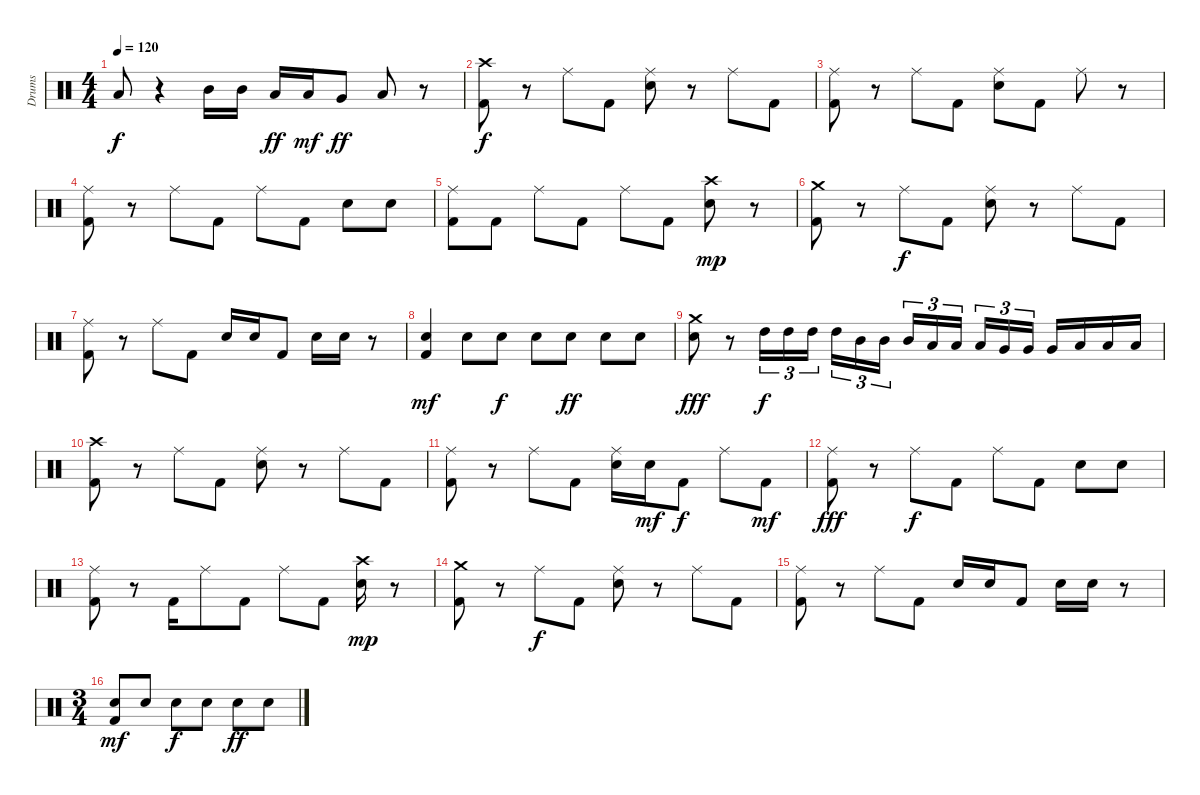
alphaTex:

\track ("Drums" "Drums") {instrument percussion}
\staff {score}
\articulation defaults
\ts (4 4)
\tempo 120
\clef neutral
\ks c "Low Floor Tom (hit)".8{dy f}
r.4 "Mid Tom (hit)".16 "Mid Tom (hit)".16 "Low Tom (hit)".16{dy ff} "Low Tom (hit)".16{dy mf} "Very Low Tom (hit)".8{dy ff} "Low Floor Tom (hit)".8 r.8 |
("Kick (hit) 2" "Crash high (hit)").8{dy f} r.8 "Ride (middle)".8 "Kick (hit) 2".8 ("Snare (hit) 2" "Ride (middle)").8 r.8 "Ride (middle)".8 "Kick (hit) 2".8 |
("Kick (hit) 2" "Ride (middle)").8 r.8 "Ride (middle)".8 "Kick (hit) 2".8 ("Snare (hit) 2" "Ride (middle)").8 "Kick (hit) 2".8 "Ride (middle)".8 r.8 |
("Kick (hit) 2" "Ride (middle)").8 r.8 "Ride (middle)".8 "Kick (hit) 2".8 "Ride (middle)".8 "Kick (hit) 2".8 "Snare (hit) 2".8 "Snare (hit) 2".8 |
("Kick (hit) 2" "Ride (middle)").8 "Kick (hit) 2".8 "Ride (middle)".8 "Kick (hit) 2".8 "Ride (middle)".8 "Kick (hit) 2".8 ("Snare (hit) 2" "Crash high (hit)").8{dy mp} r.8 |
("Kick (hit) 2" "Crash medium (hit)").8 r.8 "Ride (middle)".8{dy f} "Kick (hit) 2".8 ("Snare (hit) 2" "Ride (middle)").8 r.8 "Ride (middle)".8 "Kick (hit) 2".8 |
("Kick (hit) 2" "Ride (middle)").8 r.8 "Ride (middle)".8 "Kick (hit) 2".8 "Snare (hit) 2".16 "Snare (hit) 2".16 "Kick (hit) 2".8 "Snare (hit) 2".16 "Snare (hit) 2".16 r.8 |
("Kick (hit) 2" "Snare (hit) 2").4{dy mf} "Snare (hit) 2".8 "Snare (hit) 2".8{dy f} "Snare (hit) 2".8 "Snare (hit) 2".8{dy ff} "Snare (hit) 2".8 "Snare (hit) 2".8 |
("Snare (hit) 2" "Crash medium (hit)").8{dy fff} r.8 "High Tom (hit)".16{tu (3 2) dy f} "High Tom (hit)".16{tu (3 2)} "High Tom (hit)".16{tu (3 2)} "High Tom (hit)".16{tu (3 2)} "Mid Tom (hit)".16{tu (3 2)} "Mid Tom (hit)".16{tu (3 2)} "Mid Tom (hit)".16{tu (3 2)} "Low Tom (hit)".16{tu (3 2)} "Low Tom (hit)".16{tu (3 2)} "Low Tom (hit)".16{tu (3 2)} "Very Low Tom (hit)".16{tu (3 2)} "Very Low Tom (hit)".16{tu (3 2)} "Very Low Tom (hit)".16 "Low Floor Tom (hit)".16 "Low Floor Tom (hit)".16 "Low Floor Tom (hit)".16 |
("Kick (hit) 2" "Crash high (hit)").8 r.8 "Ride (middle)".8 "Kick (hit) 2".8 ("Snare (hit) 2" "Ride (middle)").8 r.8 "Ride (middle)".8 "Kick (hit) 2".8 |
("Kick (hit) 2" "Ride (middle)").8 r.8 "Ride (middle)".8 "Kick (hit) 2".8 ("Snare (hit) 2" "Ride (middle)").16 "Snare (hit) 2".16{dy mf} "Kick (hit) 2".8{dy f} "Ride (middle)".8 "Kick (hit) 2".8{dy mf} |
("Kick (hit) 2" "Ride (middle)").8{dy fff} r.8 "Ride (middle)".8{dy f} "Kick (hit) 2".8 "Ride (middle)".8 "Kick (hit) 2".8 "Snare (hit) 2".8 "Snare (hit) 2".8 |
("Kick (hit) 2" "Ride (middle)").8 r.8 "Kick (hit) 2".16 "Ride (middle)".8 "Kick (hit) 2".8 "Ride (middle)".8 "Kick (hit) 2".8 ("Snare (hit) 2" "Crash high (hit)").16{dy mp} r.8 |
("Kick (hit) 2" "Crash medium (hit)").8 r.8 "Ride (middle)".8{dy f} "Kick (hit) 2".8 ("Snare (hit) 2" "Ride (middle)").8 r.8 "Ride (middle)".8 "Kick (hit) 2".8 |
("Kick (hit) 2" "Ride (middle)").8 r.8 "Ride (middle)".8 "Kick (hit) 2".8 "Snare (hit) 2".16 "Snare (hit) 2".16 "Kick (hit) 2".8 "Snare (hit) 2".16 "Snare (hit) 2".16 r.8 |
\ts (3 4)
("Kick (hit) 2" "Snare (hit) 2").8{dy mf} "Snare (hit) 2".8 "Snare (hit) 2".8{dy f} "Snare (hit) 2".8 "Snare (hit) 2".8{dy ff} "Snare (hit) 2".8
